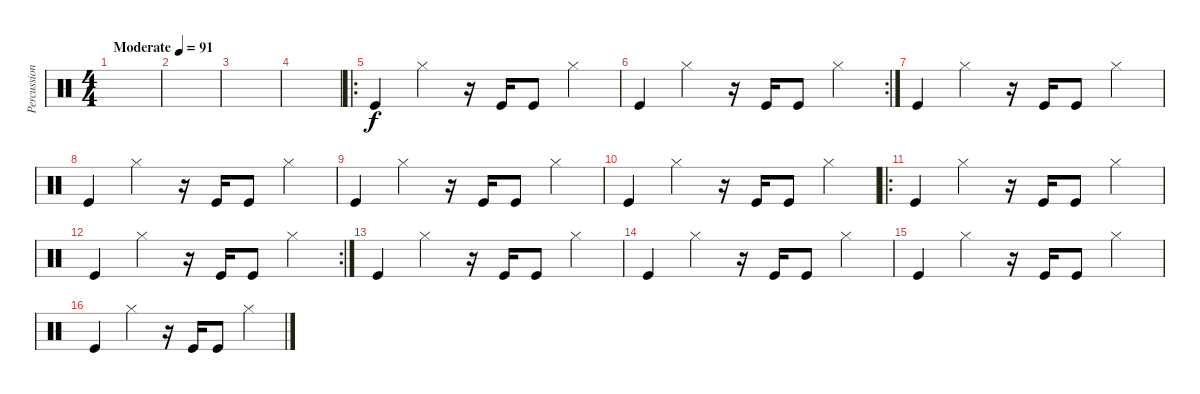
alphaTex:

\track ("Percussion" "Percussion") {instrument percussion}
\staff {score}
\articulation defaults
\ts (4 4)
\tempo (91 "Moderate")
\clef neutral
\ks c
|
|
|
|
\ro "Kick (hit)".4 "Hi-Hat (closed)".4
r.16 "Kick (hit)".16 "Kick (hit)".8 "Hi-Hat (closed)".4 |
\rc 2 "Kick (hit)".4 "Hi-Hat (closed)".4
r.16 "Kick (hit)".16 "Kick (hit)".8 "Hi-Hat (closed)".4 |
"Kick (hit)".4 "Hi-Hat (closed)".4 r.16 "Kick (hit)".16 "Kick (hit)".8 "Hi-Hat (closed)".4 |
"Kick (hit)".4 "Hi-Hat (closed)".4 r.16 "Kick (hit)".16 "Kick (hit)".8 "Hi-Hat (closed)".4 |
"Kick (hit)".4 "Hi-Hat (closed)".4 r.16 "Kick (hit)".16 "Kick (hit)".8 "Hi-Hat (closed)".4 |
"Kick (hit)".4 "Hi-Hat (closed)".4 r.16 "Kick (hit)".16 "Kick (hit)".8 "Hi-Hat (closed)".4 |
\ro "Kick (hit)".4 "Hi-Hat (closed)".4
r.16 "Kick (hit)".16 "Kick (hit)".8 "Hi-Hat (closed)".4 |
\rc 2 "Kick (hit)".4 "Hi-Hat (closed)".4
r.16 "Kick (hit)".16 "Kick (hit)".8 "Hi-Hat (closed)".4 |
"Kick (hit)".4 "Hi-Hat (closed)".4 r.16 "Kick (hit)".16 "Kick (hit)".8 "Hi-Hat (closed)".4 |
"Kick (hit)".4 "Hi-Hat (closed)".4 r.16 "Kick (hit)".16 "Kick (hit)".8 "Hi-Hat (closed)".4 |
"Kick (hit)".4 "Hi-Hat (closed)".4 r.16 "Kick (hit)".16 "Kick (hit)".8 "Hi-Hat (closed)".4 |
"Kick (hit)".4 "Hi-Hat (closed)".4 r.16 "Kick (hit)".16 "Kick (hit)".8 "Hi-Hat (closed)".4
